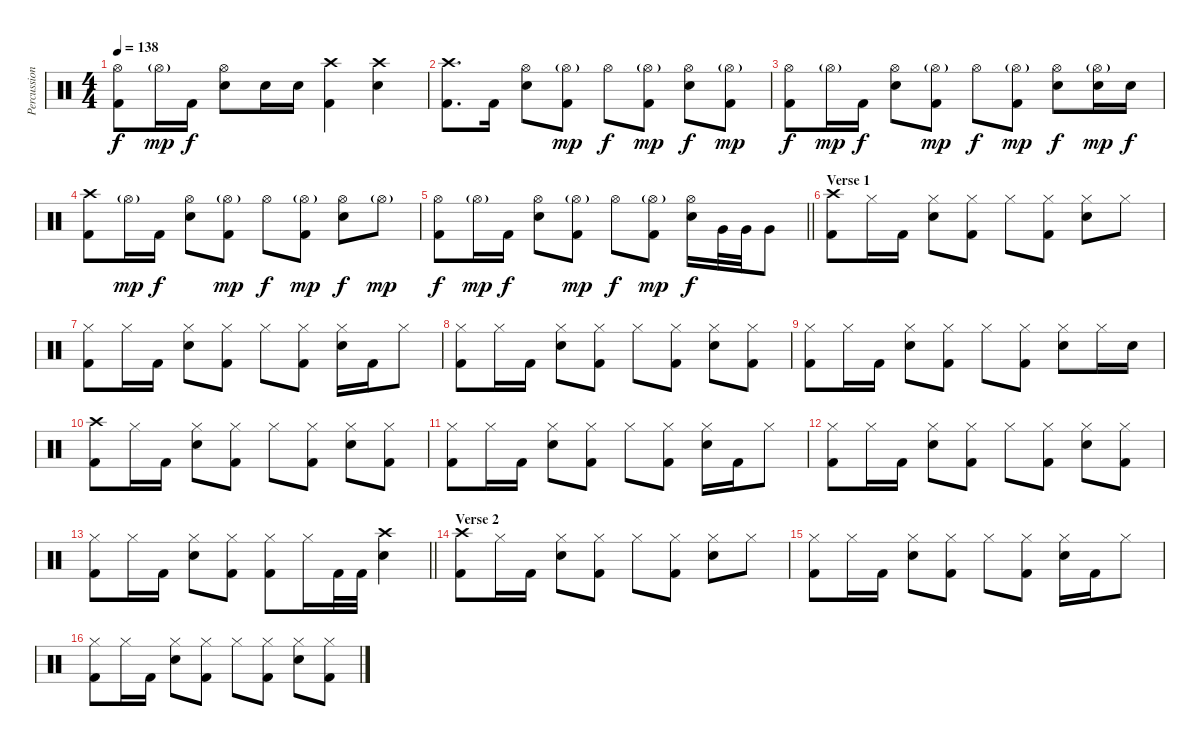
\track ("Percussion" "Percussion") {instrument percussion}
\staff {score}
\articulation defaults
\ts (4 4)
\tempo 138
\clef neutral
\ks c
("Hi-Hat (open)" "Kick (hit) 2").8{dy f} "Hi-Hat (open)"{g}.16{dy mp} "Kick (hit) 2".16{dy f} ("Hi-Hat (open)" "Snare (hit) 2").8 "Snare (hit) 2".16 "Snare (hit) 2".16 ("Crash high (hit)" "Kick (hit) 2").4 ("Crash high (hit)" "Snare (hit) 2").4 |
("Crash high (hit)" "Kick (hit) 2").8{d} "Kick (hit) 2".16 ("Hi-Hat (open)" "Snare (hit) 2").8 ("Hi-Hat (open)"{g} "Kick (hit) 2").8{dy mp} "Hi-Hat (open)".8{dy f} ("Hi-Hat (open)"{g} "Kick (hit) 2").8{dy mp} ("Hi-Hat (open)" "Snare (hit) 2").8{dy f} ("Hi-Hat (open)"{g} "Kick (hit) 2").8{dy mp} |
("Hi-Hat (open)" "Kick (hit) 2").8{dy f} "Hi-Hat (open)"{g}.16{dy mp} "Kick (hit) 2".16{dy f} ("Hi-Hat (open)" "Snare (hit) 2").8 ("Hi-Hat (open)"{g} "Kick (hit) 2").8{dy mp} "Hi-Hat (open)".8{dy f} ("Hi-Hat (open)"{g} "Kick (hit) 2").8{dy mp} ("Hi-Hat (open)" "Snare (hit) 2").8{dy f} ("Hi-Hat (open)"{g} "Snare (hit) 2").16{dy mp} "Snare (hit) 2".16{dy f} |
("Crash high (hit)" "Kick (hit) 2").8 "Hi-Hat (open)"{g}.16{dy mp} "Kick (hit) 2".16{dy f} ("Hi-Hat (open)" "Snare (hit) 2").8 ("Hi-Hat (open)"{g} "Kick (hit) 2").8{dy mp} "Hi-Hat (open)".8{dy f} ("Hi-Hat (open)"{g} "Kick (hit) 2").8{dy mp} ("Hi-Hat (open)" "Snare (hit) 2").8{dy f} "Hi-Hat (open)"{g}.8{dy mp} |
\barLineRight lightlight
("Hi-Hat (open)" "Kick (hit) 2").8{dy f} "Hi-Hat (open)"{g}.16{dy mp} "Kick (hit) 2".16{dy f} ("Hi-Hat (open)" "Snare (hit) 2").8 ("Hi-Hat (open)"{g} "Kick (hit) 2").8{dy mp} "Hi-Hat (open)".8{dy f} ("Hi-Hat (open)"{g} "Kick (hit) 2").8{dy mp} ("Hi-Hat (open)" "Snare (hit) 2").16{dy f} "Very Low Tom (hit)".32 "Very Low Tom (hit)".32 "Very Low Tom (hit)".8 |
\section ("" "Verse 1")
("Crash high (hit)" "Kick (hit) 2").8 "Hi-Hat (closed)".16 "Kick (hit) 2".16 ("Hi-Hat (closed)" "Snare (hit) 2").8 ("Hi-Hat (closed)" "Kick (hit) 2").8 "Hi-Hat (closed)".8 ("Hi-Hat (closed)" "Kick (hit) 2").8 ("Hi-Hat (closed)" "Snare (hit) 2").8 "Hi-Hat (closed)".8 |
("Hi-Hat (closed)" "Kick (hit) 2").8 "Hi-Hat (closed)".16 "Kick (hit) 2".16 ("Hi-Hat (closed)" "Snare (hit) 2").8 ("Hi-Hat (closed)" "Kick (hit) 2").8 "Hi-Hat (closed)".8 ("Hi-Hat (closed)" "Kick (hit) 2").8 ("Hi-Hat (closed)" "Snare (hit) 2").16 "Kick (hit) 2".16 "Hi-Hat (closed)".8 |
("Hi-Hat (closed)" "Kick (hit) 2").8 "Hi-Hat (closed)".16 "Kick (hit) 2".16 ("Hi-Hat (closed)" "Snare (hit) 2").8 ("Hi-Hat (closed)" "Kick (hit) 2").8 "Hi-Hat (closed)".8 ("Hi-Hat (closed)" "Kick (hit) 2").8 ("Hi-Hat (closed)" "Snare (hit) 2").8 ("Hi-Hat (closed)" "Kick (hit) 2").8 |
("Hi-Hat (closed)" "Kick (hit) 2").8 "Hi-Hat (closed)".16 "Kick (hit) 2".16 ("Hi-Hat (closed)" "Snare (hit) 2").8 ("Hi-Hat (closed)" "Kick (hit) 2").8 "Hi-Hat (closed)".8 ("Hi-Hat (closed)" "Kick (hit) 2").8 ("Hi-Hat (closed)" "Snare (hit) 2").8 "Hi-Hat (closed)".16 "Snare (hit) 2".16 |
("Crash high (hit)" "Kick (hit) 2").8 "Hi-Hat (closed)".16 "Kick (hit) 2".16 ("Hi-Hat (closed)" "Snare (hit) 2").8 ("Hi-Hat (closed)" "Kick (hit) 2").8 "Hi-Hat (closed)".8 ("Hi-Hat (closed)" "Kick (hit) 2").8 ("Hi-Hat (closed)" "Snare (hit) 2").8 ("Hi-Hat (closed)" "Kick (hit) 2").8 |
("Hi-Hat (closed)" "Kick (hit) 2").8 "Hi-Hat (closed)".16 "Kick (hit) 2".16 ("Hi-Hat (closed)" "Snare (hit) 2").8 ("Hi-Hat (closed)" "Kick (hit) 2").8 "Hi-Hat (closed)".8 ("Hi-Hat (closed)" "Kick (hit) 2").8 ("Hi-Hat (closed)" "Snare (hit) 2").16 "Kick (hit) 2".16 "Hi-Hat (closed)".8 |
("Hi-Hat (closed)" "Kick (hit) 2").8 "Hi-Hat (closed)".16 "Kick (hit) 2".16 ("Hi-Hat (closed)" "Snare (hit) 2").8 ("Hi-Hat (closed)" "Kick (hit) 2").8 "Hi-Hat (closed)".8 ("Hi-Hat (closed)" "Kick (hit) 2").8 ("Hi-Hat (closed)" "Snare (hit) 2").8 ("Hi-Hat (closed)" "Kick (hit) 2").8 |
\barLineRight lightlight
("Hi-Hat (closed)" "Kick (hit) 2").8 "Hi-Hat (closed)".16 "Kick (hit) 2".16 ("Hi-Hat (closed)" "Snare (hit) 2").8 ("Hi-Hat (closed)" "Kick (hit) 2").8 ("Hi-Hat (closed)" "Kick (hit) 2").8 "Hi-Hat (closed)".16 "Kick (hit) 2".32 "Kick (hit) 2".32 ("Crash high (hit)" "Snare (hit) 2").4 |
\section ("" "Verse 2")
("Crash high (hit)" "Kick (hit) 2").8 "Hi-Hat (closed)".16 "Kick (hit) 2".16 ("Hi-Hat (closed)" "Snare (hit) 2").8 ("Hi-Hat (closed)" "Kick (hit) 2").8 "Hi-Hat (closed)".8 ("Hi-Hat (closed)" "Kick (hit) 2").8 ("Hi-Hat (closed)" "Snare (hit) 2").8 "Hi-Hat (closed)".8 |
("Hi-Hat (closed)" "Kick (hit) 2").8 "Hi-Hat (closed)".16 "Kick (hit) 2".16 ("Hi-Hat (closed)" "Snare (hit) 2").8 ("Hi-Hat (closed)" "Kick (hit) 2").8 "Hi-Hat (closed)".8 ("Hi-Hat (closed)" "Kick (hit) 2").8 ("Hi-Hat (closed)" "Snare (hit) 2").16 "Kick (hit) 2".16 "Hi-Hat (closed)".8 |
("Hi-Hat (closed)" "Kick (hit) 2").8 "Hi-Hat (closed)".16 "Kick (hit) 2".16 ("Hi-Hat (closed)" "Snare (hit) 2").8 ("Hi-Hat (closed)" "Kick (hit) 2").8 "Hi-Hat (closed)".8 ("Hi-Hat (closed)" "Kick (hit) 2").8 ("Hi-Hat (closed)" "Snare (hit) 2").8 ("Hi-Hat (closed)" "Kick (hit) 2").8
